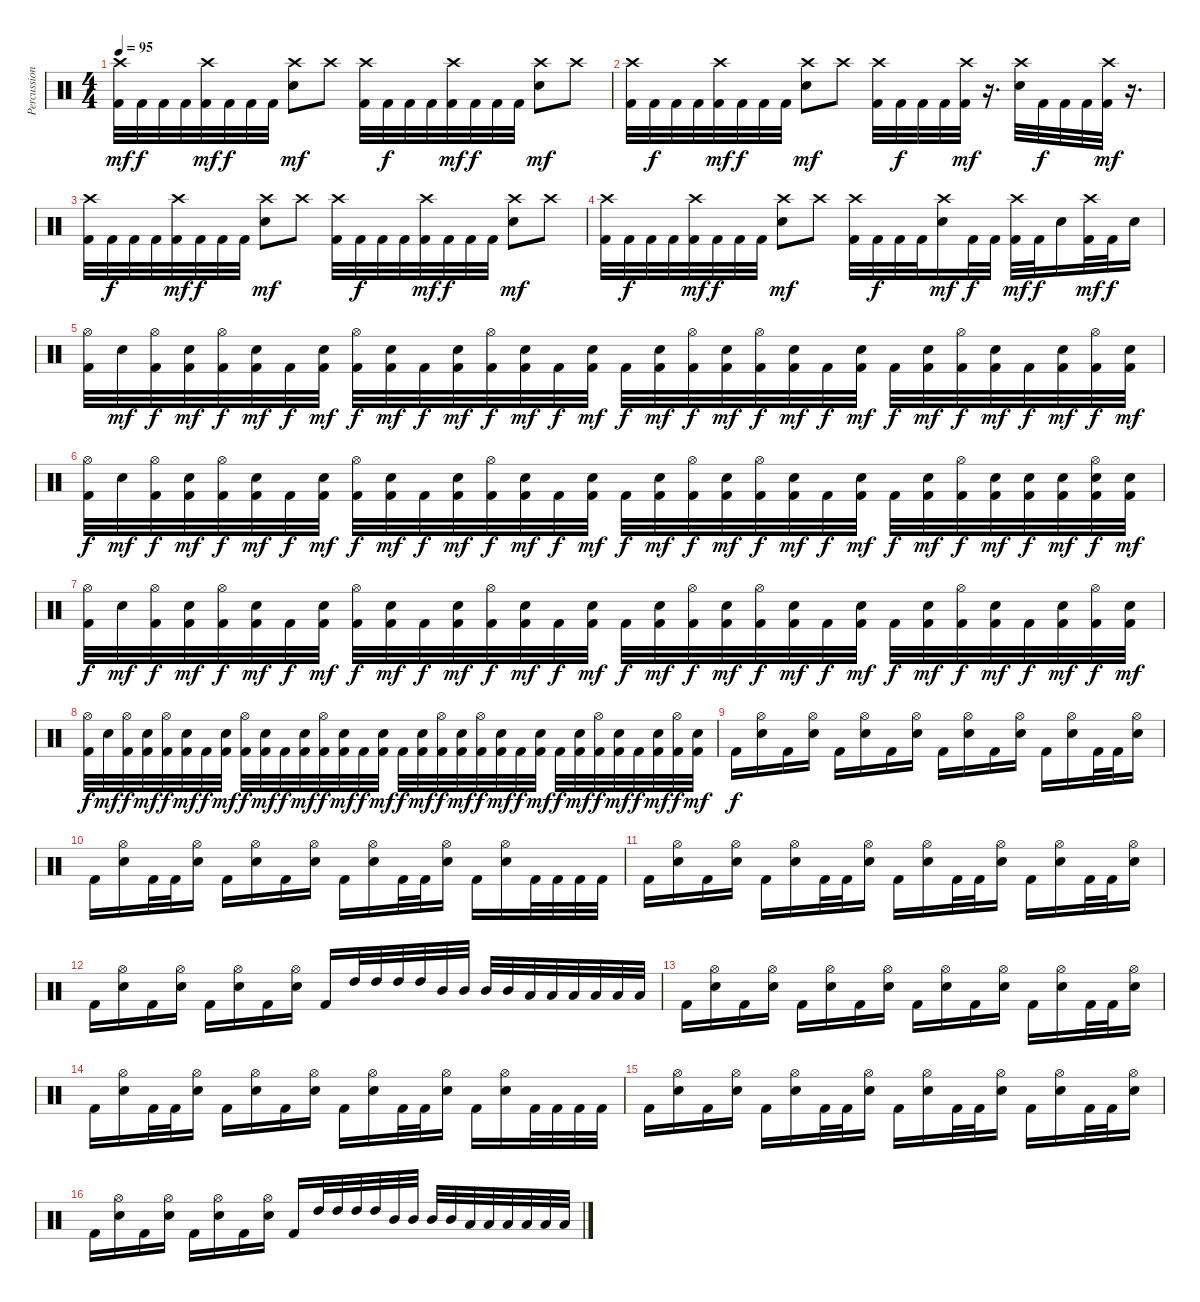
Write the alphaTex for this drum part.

\track ("Percussion" "Percussion") {instrument percussion}
\staff {score}
\articulation defaults
\ts (4 4)
\tempo 95
\clef neutral
\ks c
("Crash high (hit)" "Kick (hit) 2").32{dy mf} "Kick (hit) 2".32{dy f} "Kick (hit) 2".32 "Kick (hit) 2".32 ("Crash high (hit)" "Kick (hit) 2").32{dy mf} "Kick (hit) 2".32{dy f} "Kick (hit) 2".32 "Kick (hit) 2".32 ("Crash high (hit)" "Electric Snare (hit)").8{dy mf} "Crash high (hit)".8 ("Crash high (hit)" "Kick (hit) 2").32 "Kick (hit) 2".32{dy f} "Kick (hit) 2".32 "Kick (hit) 2".32 ("Crash high (hit)" "Kick (hit) 2").32{dy mf} "Kick (hit) 2".32{dy f} "Kick (hit) 2".32 "Kick (hit) 2".32 ("Crash high (hit)" "Electric Snare (hit)").8{dy mf} "Crash high (hit)".8 |
("Crash high (hit)" "Kick (hit) 2").32 "Kick (hit) 2".32{dy f} "Kick (hit) 2".32 "Kick (hit) 2".32 ("Crash high (hit)" "Kick (hit) 2").32{dy mf} "Kick (hit) 2".32{dy f} "Kick (hit) 2".32 "Kick (hit) 2".32 ("Crash high (hit)" "Electric Snare (hit)").8{dy mf} "Crash high (hit)".8 ("Crash high (hit)" "Kick (hit) 2").32 "Kick (hit) 2".32{dy f} "Kick (hit) 2".32 "Kick (hit) 2".32 ("Crash high (hit)" "Kick (hit) 2").32{dy mf} r.16{d} ("Crash high (hit)" "Electric Snare (hit)").32 "Kick (hit) 2".32{dy f} "Kick (hit) 2".32 "Kick (hit) 2".32 ("Crash high (hit)" "Kick (hit) 2").32{dy mf} r.16{d} |
("Crash high (hit)" "Kick (hit) 2").32 "Kick (hit) 2".32{dy f} "Kick (hit) 2".32 "Kick (hit) 2".32 ("Crash high (hit)" "Kick (hit) 2").32{dy mf} "Kick (hit) 2".32{dy f} "Kick (hit) 2".32 "Kick (hit) 2".32 ("Crash high (hit)" "Electric Snare (hit)").8{dy mf} "Crash high (hit)".8 ("Crash high (hit)" "Kick (hit) 2").32 "Kick (hit) 2".32{dy f} "Kick (hit) 2".32 "Kick (hit) 2".32 ("Crash high (hit)" "Kick (hit) 2").32{dy mf} "Kick (hit) 2".32{dy f} "Kick (hit) 2".32 "Kick (hit) 2".32 ("Crash high (hit)" "Electric Snare (hit)").8{dy mf} "Crash high (hit)".8 |
("Crash high (hit)" "Kick (hit) 2").32 "Kick (hit) 2".32{dy f} "Kick (hit) 2".32 "Kick (hit) 2".32 ("Crash high (hit)" "Kick (hit) 2").32{dy mf} "Kick (hit) 2".32{dy f} "Kick (hit) 2".32 "Kick (hit) 2".32 ("Crash high (hit)" "Electric Snare (hit)").8{dy mf} "Crash high (hit)".8 ("Crash high (hit)" "Kick (hit) 2").32 "Kick (hit) 2".32{dy f} "Kick (hit) 2".32 "Kick (hit) 2".32 ("Crash high (hit)" "Electric Snare (hit)").16{dy mf} "Kick (hit) 2".32{dy f} "Kick (hit) 2".32 ("Crash high (hit)" "Kick (hit) 2").32{dy mf} "Kick (hit) 2".32{dy f} "Electric Snare (hit)".16 ("Crash high (hit)" "Kick (hit) 2").32{dy mf} "Kick (hit) 2".32{dy f} "Electric Snare (hit)".16 |
("Hi-Hat (open)" "Kick (hit) 2").32 "Electric Snare (hit)".32{dy mf} ("Hi-Hat (open)" "Kick (hit) 2").32{dy f} ("Electric Snare (hit)" "Kick (hit) 2").32{dy mf} ("Hi-Hat (open)" "Kick (hit) 2").32{dy f} ("Electric Snare (hit)" "Kick (hit) 2").32{dy mf} "Kick (hit) 2".32{dy f} ("Electric Snare (hit)" "Kick (hit) 2").32{dy mf} ("Hi-Hat (open)" "Kick (hit) 2").32{dy f} ("Electric Snare (hit)" "Kick (hit) 2").32{dy mf} "Kick (hit) 2".32{dy f} ("Electric Snare (hit)" "Kick (hit) 2").32{dy mf} ("Hi-Hat (open)" "Kick (hit) 2").32{dy f} ("Electric Snare (hit)" "Kick (hit) 2").32{dy mf} "Kick (hit) 2".32{dy f} ("Electric Snare (hit)" "Kick (hit) 2").32{dy mf} "Kick (hit) 2".32{dy f} ("Electric Snare (hit)" "Kick (hit) 2").32{dy mf} ("Hi-Hat (open)" "Kick (hit) 2").32{dy f} ("Electric Snare (hit)" "Kick (hit) 2").32{dy mf} ("Hi-Hat (open)" "Kick (hit) 2").32{dy f} ("Electric Snare (hit)" "Kick (hit) 2").32{dy mf} "Kick (hit) 2".32{dy f} ("Electric Snare (hit)" "Kick (hit) 2").32{dy mf} "Kick (hit) 2".32{dy f} ("Electric Snare (hit)" "Kick (hit) 2").32{dy mf} ("Hi-Hat (open)" "Kick (hit) 2").32{dy f} ("Electric Snare (hit)" "Kick (hit) 2").32{dy mf} "Kick (hit) 2".32{dy f} ("Electric Snare (hit)" "Kick (hit) 2").32{dy mf} ("Hi-Hat (open)" "Kick (hit) 2").32{dy f} ("Electric Snare (hit)" "Kick (hit) 2").32{dy mf} |
("Hi-Hat (open)" "Kick (hit) 2").32{dy f} "Electric Snare (hit)".32{dy mf} ("Hi-Hat (open)" "Kick (hit) 2").32{dy f} ("Electric Snare (hit)" "Kick (hit) 2").32{dy mf} ("Hi-Hat (open)" "Kick (hit) 2").32{dy f} ("Electric Snare (hit)" "Kick (hit) 2").32{dy mf} "Kick (hit) 2".32{dy f} ("Electric Snare (hit)" "Kick (hit) 2").32{dy mf} ("Hi-Hat (open)" "Kick (hit) 2").32{dy f} ("Electric Snare (hit)" "Kick (hit) 2").32{dy mf} "Kick (hit) 2".32{dy f} ("Electric Snare (hit)" "Kick (hit) 2").32{dy mf} ("Hi-Hat (open)" "Kick (hit) 2").32{dy f} ("Electric Snare (hit)" "Kick (hit) 2").32{dy mf} "Kick (hit) 2".32{dy f} ("Electric Snare (hit)" "Kick (hit) 2").32{dy mf} "Kick (hit) 2".32{dy f} ("Electric Snare (hit)" "Kick (hit) 2").32{dy mf} ("Hi-Hat (open)" "Kick (hit) 2").32{dy f} ("Electric Snare (hit)" "Kick (hit) 2").32{dy mf} ("Hi-Hat (open)" "Kick (hit) 2").32{dy f} ("Electric Snare (hit)" "Kick (hit) 2").32{dy mf} "Kick (hit) 2".32{dy f} ("Electric Snare (hit)" "Kick (hit) 2").32{dy mf} "Kick (hit) 2".32{dy f} ("Electric Snare (hit)" "Kick (hit) 2").32{dy mf} ("Hi-Hat (open)" "Kick (hit) 2").32{dy f} ("Electric Snare (hit)" "Kick (hit) 2").32{dy mf} ("Electric Snare (hit)" "Kick (hit) 2").32{dy f} ("Electric Snare (hit)" "Kick (hit) 2").32{dy mf} ("Hi-Hat (open)" "Electric Snare (hit)" "Kick (hit) 2").32{dy f} ("Electric Snare (hit)" "Kick (hit) 2").32{dy mf} |
("Hi-Hat (open)" "Kick (hit) 2").32{dy f} "Electric Snare (hit)".32{dy mf} ("Hi-Hat (open)" "Kick (hit) 2").32{dy f} ("Electric Snare (hit)" "Kick (hit) 2").32{dy mf} ("Hi-Hat (open)" "Kick (hit) 2").32{dy f} ("Electric Snare (hit)" "Kick (hit) 2").32{dy mf} "Kick (hit) 2".32{dy f} ("Electric Snare (hit)" "Kick (hit) 2").32{dy mf} ("Hi-Hat (open)" "Kick (hit) 2").32{dy f} ("Electric Snare (hit)" "Kick (hit) 2").32{dy mf} "Kick (hit) 2".32{dy f} ("Electric Snare (hit)" "Kick (hit) 2").32{dy mf} ("Hi-Hat (open)" "Kick (hit) 2").32{dy f} ("Electric Snare (hit)" "Kick (hit) 2").32{dy mf} "Kick (hit) 2".32{dy f} ("Electric Snare (hit)" "Kick (hit) 2").32{dy mf} "Kick (hit) 2".32{dy f} ("Electric Snare (hit)" "Kick (hit) 2").32{dy mf} ("Hi-Hat (open)" "Kick (hit) 2").32{dy f} ("Electric Snare (hit)" "Kick (hit) 2").32{dy mf} ("Hi-Hat (open)" "Kick (hit) 2").32{dy f} ("Electric Snare (hit)" "Kick (hit) 2").32{dy mf} "Kick (hit) 2".32{dy f} ("Electric Snare (hit)" "Kick (hit) 2").32{dy mf} "Kick (hit) 2".32{dy f} ("Electric Snare (hit)" "Kick (hit) 2").32{dy mf} ("Hi-Hat (open)" "Kick (hit) 2").32{dy f} ("Electric Snare (hit)" "Kick (hit) 2").32{dy mf} "Kick (hit) 2".32{dy f} ("Electric Snare (hit)" "Kick (hit) 2").32{dy mf} ("Hi-Hat (open)" "Kick (hit) 2").32{dy f} ("Electric Snare (hit)" "Kick (hit) 2").32{dy mf} |
("Hi-Hat (open)" "Kick (hit) 2").32{dy f} "Electric Snare (hit)".32{dy mf} ("Hi-Hat (open)" "Kick (hit) 2").32{dy f} ("Electric Snare (hit)" "Kick (hit) 2").32{dy mf} ("Hi-Hat (open)" "Kick (hit) 2").32{dy f} ("Electric Snare (hit)" "Kick (hit) 2").32{dy mf} "Kick (hit) 2".32{dy f} ("Electric Snare (hit)" "Kick (hit) 2").32{dy mf} ("Hi-Hat (open)" "Kick (hit) 2").32{dy f} ("Electric Snare (hit)" "Kick (hit) 2").32{dy mf} "Kick (hit) 2".32{dy f} ("Electric Snare (hit)" "Kick (hit) 2").32{dy mf} ("Hi-Hat (open)" "Kick (hit) 2").32{dy f} ("Electric Snare (hit)" "Kick (hit) 2").32{dy mf} "Kick (hit) 2".32{dy f} ("Electric Snare (hit)" "Kick (hit) 2").32{dy mf} "Kick (hit) 2".32{dy f} ("Electric Snare (hit)" "Kick (hit) 2").32{dy mf} ("Hi-Hat (open)" "Kick (hit) 2").32{dy f} ("Electric Snare (hit)" "Kick (hit) 2").32{dy mf} ("Hi-Hat (open)" "Kick (hit) 2").32{dy f} ("Electric Snare (hit)" "Kick (hit) 2").32{dy mf} "Kick (hit) 2".32{dy f} ("Electric Snare (hit)" "Kick (hit) 2").32{dy mf} "Kick (hit) 2".32{dy f} ("Electric Snare (hit)" "Kick (hit) 2").32{dy mf} ("Hi-Hat (open)" "Kick (hit) 2").32{dy f} ("Electric Snare (hit)" "Kick (hit) 2").32{dy mf} "Kick (hit) 2".32{dy f} ("Electric Snare (hit)" "Kick (hit) 2").32{dy mf} ("Hi-Hat (open)" "Kick (hit) 2").32{dy f} ("Electric Snare (hit)" "Kick (hit) 2").32{dy mf} |
"Kick (hit) 2".16{dy f} ("Hi-Hat (open)" "Electric Snare (hit)").16 "Kick (hit) 2".16 ("Hi-Hat (open)" "Electric Snare (hit)").16 "Kick (hit) 2".16 ("Hi-Hat (open)" "Electric Snare (hit)").16 "Kick (hit) 2".16 ("Hi-Hat (open)" "Electric Snare (hit)").16 "Kick (hit) 2".16 ("Hi-Hat (open)" "Electric Snare (hit)").16 "Kick (hit) 2".16 ("Hi-Hat (open)" "Electric Snare (hit)").16 "Kick (hit) 2".16 ("Hi-Hat (open)" "Electric Snare (hit)").16 "Kick (hit) 2".32 "Kick (hit) 2".32 ("Hi-Hat (open)" "Electric Snare (hit)").16 |
"Kick (hit) 2".16 ("Hi-Hat (open)" "Electric Snare (hit)").16 "Kick (hit) 2".32 "Kick (hit) 2".32 ("Hi-Hat (open)" "Electric Snare (hit)").16 "Kick (hit) 2".16 ("Hi-Hat (open)" "Electric Snare (hit)").16 "Kick (hit) 2".16 ("Hi-Hat (open)" "Electric Snare (hit)").16 "Kick (hit) 2".16 ("Hi-Hat (open)" "Electric Snare (hit)").16 "Kick (hit) 2".32 "Kick (hit) 2".32 ("Hi-Hat (open)" "Electric Snare (hit)").16 "Kick (hit) 2".16 ("Hi-Hat (open)" "Electric Snare (hit)").16 "Kick (hit) 2".32 "Kick (hit) 2".32 "Kick (hit) 2".32 "Kick (hit) 2".32 |
"Kick (hit) 2".16 ("Hi-Hat (open)" "Electric Snare (hit)").16 "Kick (hit) 2".16 ("Hi-Hat (open)" "Electric Snare (hit)").16 "Kick (hit) 2".16 ("Hi-Hat (open)" "Electric Snare (hit)").16 "Kick (hit) 2".32 "Kick (hit) 2".32 ("Hi-Hat (open)" "Electric Snare (hit)").16 "Kick (hit) 2".16 ("Hi-Hat (open)" "Electric Snare (hit)").16 "Kick (hit) 2".32 "Kick (hit) 2".32 ("Hi-Hat (open)" "Electric Snare (hit)").16 "Kick (hit) 2".16 ("Hi-Hat (open)" "Electric Snare (hit)").16 "Kick (hit) 2".32 "Kick (hit) 2".32 ("Hi-Hat (open)" "Electric Snare (hit)").16 |
"Kick (hit) 2".16 ("Hi-Hat (open)" "Electric Snare (hit)").16 "Kick (hit) 2".16 ("Hi-Hat (open)" "Electric Snare (hit)").16 "Kick (hit) 2".16 ("Hi-Hat (open)" "Electric Snare (hit)").16 "Kick (hit) 2".16 ("Hi-Hat (open)" "Electric Snare (hit)").16 "Kick (hit) 2".16 "High Tom (hit)".32 "High Tom (hit)".32 "High Tom (hit)".32 "High Tom (hit)".32 "Mid Tom (hit)".32 "Mid Tom (hit)".32 "Mid Tom (hit)".32 "Mid Tom (hit)".32 "Low Tom (hit)".32 "Low Tom (hit)".32 "Low Tom (hit)".32 "Low Tom (hit)".32 "Low Tom (hit)".32 "Low Tom (hit)".32 |
"Kick (hit) 2".16 ("Hi-Hat (open)" "Electric Snare (hit)").16 "Kick (hit) 2".16 ("Hi-Hat (open)" "Electric Snare (hit)").16 "Kick (hit) 2".16 ("Hi-Hat (open)" "Electric Snare (hit)").16 "Kick (hit) 2".16 ("Hi-Hat (open)" "Electric Snare (hit)").16 "Kick (hit) 2".16 ("Hi-Hat (open)" "Electric Snare (hit)").16 "Kick (hit) 2".16 ("Hi-Hat (open)" "Electric Snare (hit)").16 "Kick (hit) 2".16 ("Hi-Hat (open)" "Electric Snare (hit)").16 "Kick (hit) 2".32 "Kick (hit) 2".32 ("Hi-Hat (open)" "Electric Snare (hit)").16 |
"Kick (hit) 2".16 ("Hi-Hat (open)" "Electric Snare (hit)").16 "Kick (hit) 2".32 "Kick (hit) 2".32 ("Hi-Hat (open)" "Electric Snare (hit)").16 "Kick (hit) 2".16 ("Hi-Hat (open)" "Electric Snare (hit)").16 "Kick (hit) 2".16 ("Hi-Hat (open)" "Electric Snare (hit)").16 "Kick (hit) 2".16 ("Hi-Hat (open)" "Electric Snare (hit)").16 "Kick (hit) 2".32 "Kick (hit) 2".32 ("Hi-Hat (open)" "Electric Snare (hit)").16 "Kick (hit) 2".16 ("Hi-Hat (open)" "Electric Snare (hit)").16 "Kick (hit) 2".32 "Kick (hit) 2".32 "Kick (hit) 2".32 "Kick (hit) 2".32 |
"Kick (hit) 2".16 ("Hi-Hat (open)" "Electric Snare (hit)").16 "Kick (hit) 2".16 ("Hi-Hat (open)" "Electric Snare (hit)").16 "Kick (hit) 2".16 ("Hi-Hat (open)" "Electric Snare (hit)").16 "Kick (hit) 2".32 "Kick (hit) 2".32 ("Hi-Hat (open)" "Electric Snare (hit)").16 "Kick (hit) 2".16 ("Hi-Hat (open)" "Electric Snare (hit)").16 "Kick (hit) 2".32 "Kick (hit) 2".32 ("Hi-Hat (open)" "Electric Snare (hit)").16 "Kick (hit) 2".16 ("Hi-Hat (open)" "Electric Snare (hit)").16 "Kick (hit) 2".32 "Kick (hit) 2".32 ("Hi-Hat (open)" "Electric Snare (hit)").16 |
"Kick (hit) 2".16 ("Hi-Hat (open)" "Electric Snare (hit)").16 "Kick (hit) 2".16 ("Hi-Hat (open)" "Electric Snare (hit)").16 "Kick (hit) 2".16 ("Hi-Hat (open)" "Electric Snare (hit)").16 "Kick (hit) 2".16 ("Hi-Hat (open)" "Electric Snare (hit)").16 "Kick (hit) 2".16 "High Tom (hit)".32 "High Tom (hit)".32 "High Tom (hit)".32 "High Tom (hit)".32 "Mid Tom (hit)".32 "Mid Tom (hit)".32 "Mid Tom (hit)".32 "Mid Tom (hit)".32 "Low Tom (hit)".32 "Low Tom (hit)".32 "Low Tom (hit)".32 "Low Tom (hit)".32 "Low Tom (hit)".32 "Low Tom (hit)".32
